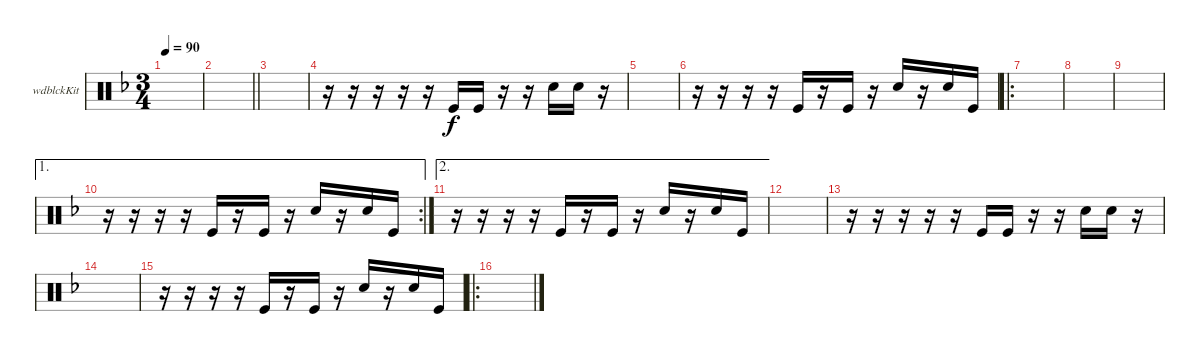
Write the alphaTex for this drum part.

\defaultSystemsLayout 4
\bracketExtendMode groupsimilarinstruments
\firstSystemTrackNameOrientation horizontal
\otherSystemsTrackNameOrientation horizontal
\track ("Woodblock" "wdblckKit") {instrument percussion}
\staff {score}
\articulation defaults
\ts (3 4)
\tempo 90
\clef neutral
\ks dminor
|
\barLineRight lightlight
|
|
r.16 r.16 r.16 r.16 r.16 "Kick (hit)".16 "Kick (hit)".16 r.16 r.16 "Snare (hit) 2".16 "Snare (hit) 2".16 r.16 |
|
r.16 r.16 r.16 r.16 "Kick (hit)".16 r.16 "Kick (hit)".16 r.16 "Snare (hit) 2".16 r.16 "Snare (hit) 2".16 "Kick (hit)".16 |
\ro
|
|
|
\ae 1
\rc 2
r.16 r.16 r.16 r.16 "Kick (hit)".16 r.16 "Kick (hit)".16 r.16 "Snare (hit) 2".16 r.16 "Snare (hit) 2".16 "Kick (hit)".16 |
\ae 2
r.16 r.16 r.16 r.16 "Kick (hit)".16 r.16 "Kick (hit)".16 r.16 "Snare (hit) 2".16 r.16 "Snare (hit) 2".16 "Kick (hit)".16 |
|
r.16 r.16 r.16 r.16 r.16 "Kick (hit)".16 "Kick (hit)".16 r.16 r.16 "Snare (hit) 2".16 "Snare (hit) 2".16 r.16 |
|
r.16 r.16 r.16 r.16 "Kick (hit)".16 r.16 "Kick (hit)".16 r.16 "Snare (hit) 2".16 r.16 "Snare (hit) 2".16 "Kick (hit)".16 |
\ro
